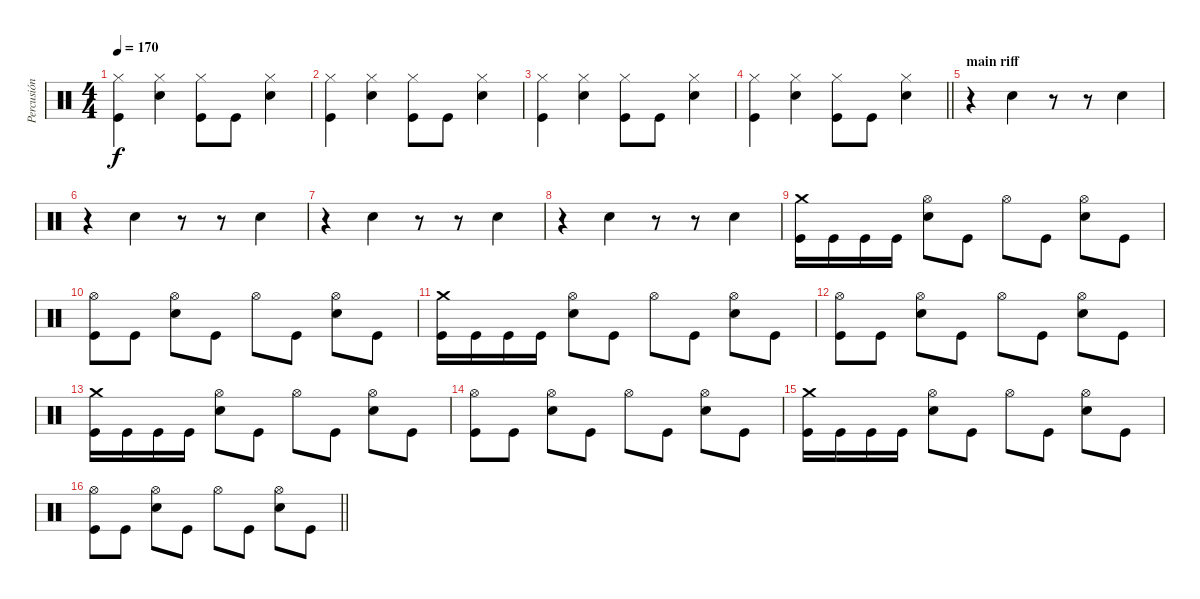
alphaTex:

\track ("Percusión" "Percusión") {instrument percussion}
\staff {score}
\articulation defaults
\ts (4 4)
\tempo 170
\clef neutral
\ks c
("Hi-Hat (closed)" "Kick (hit)").4{dy f} ("Hi-Hat (closed)" "Electric Snare (hit)").4 ("Hi-Hat (closed)" "Kick (hit)").8 "Kick (hit)".8 ("Hi-Hat (closed)" "Electric Snare (hit)").4 |
("Hi-Hat (closed)" "Kick (hit)").4 ("Hi-Hat (closed)" "Electric Snare (hit)").4 ("Hi-Hat (closed)" "Kick (hit)").8 "Kick (hit)".8 ("Hi-Hat (closed)" "Electric Snare (hit)").4 |
("Hi-Hat (closed)" "Kick (hit)").4 ("Hi-Hat (closed)" "Electric Snare (hit)").4 ("Hi-Hat (closed)" "Kick (hit)").8 "Kick (hit)".8 ("Hi-Hat (closed)" "Electric Snare (hit)").4 |
\barLineRight lightlight
("Hi-Hat (closed)" "Kick (hit)").4 ("Hi-Hat (closed)" "Electric Snare (hit)").4 ("Hi-Hat (closed)" "Kick (hit)").8 "Kick (hit)".8 ("Hi-Hat (closed)" "Electric Snare (hit)").4 |
\section ("" "main riff")
r.4 "Electric Snare (hit)".4 r.8 r.8 "Electric Snare (hit)".4 |
r.4 "Electric Snare (hit)".4 r.8 r.8 "Electric Snare (hit)".4 |
r.4 "Electric Snare (hit)".4 r.8 r.8 "Electric Snare (hit)".4 |
r.4 "Electric Snare (hit)".4 r.8 r.8 "Electric Snare (hit)".4 |
("Crash medium (hit)" "Kick (hit)").16 "Kick (hit)".16 "Kick (hit)".16 "Kick (hit)".16 ("Hi-Hat (open)" "Electric Snare (hit)").8 "Kick (hit)".8 "Hi-Hat (open)".8 "Kick (hit)".8 ("Hi-Hat (open)" "Electric Snare (hit)").8 "Kick (hit)".8 |
("Hi-Hat (open)" "Kick (hit)").8 "Kick (hit)".8 ("Hi-Hat (open)" "Electric Snare (hit)").8 "Kick (hit)".8 "Hi-Hat (open)".8 "Kick (hit)".8 ("Hi-Hat (open)" "Electric Snare (hit)").8 "Kick (hit)".8 |
("Crash medium (hit)" "Kick (hit)").16 "Kick (hit)".16 "Kick (hit)".16 "Kick (hit)".16 ("Hi-Hat (open)" "Electric Snare (hit)").8 "Kick (hit)".8 "Hi-Hat (open)".8 "Kick (hit)".8 ("Hi-Hat (open)" "Electric Snare (hit)").8 "Kick (hit)".8 |
("Hi-Hat (open)" "Kick (hit)").8 "Kick (hit)".8 ("Hi-Hat (open)" "Electric Snare (hit)").8 "Kick (hit)".8 "Hi-Hat (open)".8 "Kick (hit)".8 ("Hi-Hat (open)" "Electric Snare (hit)").8 "Kick (hit)".8 |
("Crash medium (hit)" "Kick (hit)").16 "Kick (hit)".16 "Kick (hit)".16 "Kick (hit)".16 ("Hi-Hat (open)" "Electric Snare (hit)").8 "Kick (hit)".8 "Hi-Hat (open)".8 "Kick (hit)".8 ("Hi-Hat (open)" "Electric Snare (hit)").8 "Kick (hit)".8 |
("Hi-Hat (open)" "Kick (hit)").8 "Kick (hit)".8 ("Hi-Hat (open)" "Electric Snare (hit)").8 "Kick (hit)".8 "Hi-Hat (open)".8 "Kick (hit)".8 ("Hi-Hat (open)" "Electric Snare (hit)").8 "Kick (hit)".8 |
("Crash medium (hit)" "Kick (hit)").16 "Kick (hit)".16 "Kick (hit)".16 "Kick (hit)".16 ("Hi-Hat (open)" "Electric Snare (hit)").8 "Kick (hit)".8 "Hi-Hat (open)".8 "Kick (hit)".8 ("Hi-Hat (open)" "Electric Snare (hit)").8 "Kick (hit)".8 |
\barLineRight lightlight
("Hi-Hat (open)" "Kick (hit)").8 "Kick (hit)".8 ("Hi-Hat (open)" "Electric Snare (hit)").8 "Kick (hit)".8 "Hi-Hat (open)".8 "Kick (hit)".8 ("Hi-Hat (open)" "Electric Snare (hit)").8 "Kick (hit)".8
